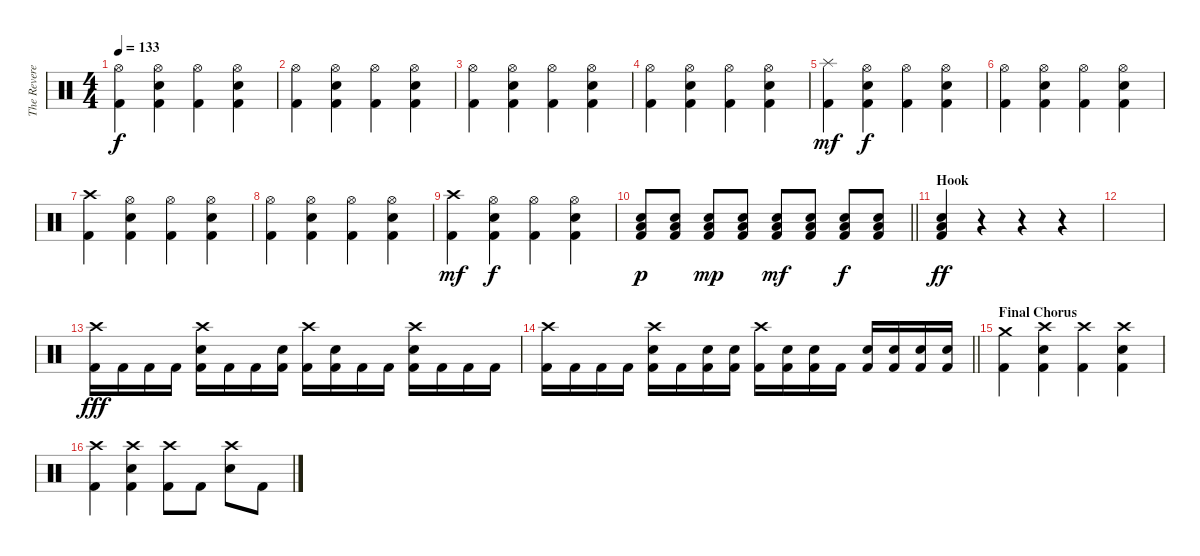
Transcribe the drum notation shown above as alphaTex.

\track ("The Reverend (R.I.P.) [Drums]" "The Revere") {instrument percussion}
\staff {score}
\articulation defaults
\ts (4 4)
\tempo 133
\clef neutral
\ks c
("Hi-Hat (open)" "Kick (hit) 2").4{dy f} ("Hi-Hat (open)" "Electric Snare (hit)" "Kick (hit) 2").4 ("Hi-Hat (open)" "Kick (hit) 2").4 ("Hi-Hat (open)" "Electric Snare (hit)" "Kick (hit) 2").4 |
("Hi-Hat (open)" "Kick (hit) 2").4 ("Hi-Hat (open)" "Electric Snare (hit)" "Kick (hit) 2").4 ("Hi-Hat (open)" "Kick (hit) 2").4 ("Hi-Hat (open)" "Electric Snare (hit)" "Kick (hit) 2").4 |
("Hi-Hat (open)" "Kick (hit) 2").4 ("Hi-Hat (open)" "Electric Snare (hit)" "Kick (hit) 2").4 ("Hi-Hat (open)" "Kick (hit) 2").4 ("Hi-Hat (open)" "Electric Snare (hit)" "Kick (hit) 2").4 |
("Hi-Hat (open)" "Kick (hit) 2").4 ("Hi-Hat (open)" "Electric Snare (hit)" "Kick (hit) 2").4 ("Hi-Hat (open)" "Kick (hit) 2").4 ("Hi-Hat (open)" "Electric Snare (hit)" "Kick (hit) 2").4 |
("Splash (hit)" "Kick (hit) 2").4{dy mf} ("Hi-Hat (open)" "Electric Snare (hit)" "Kick (hit) 2").4{dy f} ("Hi-Hat (open)" "Kick (hit) 2").4 ("Hi-Hat (open)" "Electric Snare (hit)" "Kick (hit) 2").4 |
("Hi-Hat (open)" "Kick (hit) 2").4 ("Hi-Hat (open)" "Electric Snare (hit)" "Kick (hit) 2").4 ("Hi-Hat (open)" "Kick (hit) 2").4 ("Hi-Hat (open)" "Electric Snare (hit)" "Kick (hit) 2").4 |
("Crash high (hit)" "Kick (hit) 2").4 ("Hi-Hat (open)" "Electric Snare (hit)" "Kick (hit) 2").4 ("Hi-Hat (open)" "Kick (hit) 2").4 ("Hi-Hat (open)" "Electric Snare (hit)" "Kick (hit) 2").4 |
("Hi-Hat (open)" "Kick (hit) 2").4 ("Hi-Hat (open)" "Electric Snare (hit)" "Kick (hit) 2").4 ("Hi-Hat (open)" "Kick (hit) 2").4 ("Hi-Hat (open)" "Electric Snare (hit)" "Kick (hit) 2").4 |
("Crash high (hit)" "Kick (hit) 2").4{dy mf} ("Hi-Hat (open)" "Electric Snare (hit)" "Kick (hit) 2").4{dy f} ("Hi-Hat (open)" "Kick (hit) 2").4 ("Hi-Hat (open)" "Electric Snare (hit)" "Kick (hit) 2").4 |
\barLineRight lightlight
("Low Floor Tom (hit)" "Electric Snare (hit)" "Kick (hit) 2").8{dy p} ("Low Floor Tom (hit)" "Electric Snare (hit)" "Kick (hit) 2").8 ("Low Floor Tom (hit)" "Electric Snare (hit)" "Kick (hit) 2").8{dy mp} ("Low Floor Tom (hit)" "Electric Snare (hit)" "Kick (hit) 2").8 ("Low Floor Tom (hit)" "Electric Snare (hit)" "Kick (hit) 2").8{dy mf} ("Low Floor Tom (hit)" "Electric Snare (hit)" "Kick (hit) 2").8 ("Low Floor Tom (hit)" "Electric Snare (hit)" "Kick (hit) 2").8{dy f} ("Low Floor Tom (hit)" "Electric Snare (hit)" "Kick (hit) 2").8 |
\section ("" "Hook")
("Low Floor Tom (hit)" "Electric Snare (hit)" "Kick (hit) 2").4{dy ff} r.4 r.4 r.4 |
|
("Crash high (hit)" "Kick (hit) 2").16{dy fff} "Kick (hit) 2".16 "Kick (hit) 2".16 "Kick (hit) 2".16 ("Crash high (hit)" "Electric Snare (hit)" "Kick (hit) 2").16 "Kick (hit) 2".16 "Kick (hit) 2".16 ("Electric Snare (hit)" "Kick (hit) 2").16 ("Crash high (hit)" "Kick (hit) 2").16 ("Electric Snare (hit)" "Kick (hit) 2").16 "Kick (hit) 2".16 "Kick (hit) 2".16 ("Crash high (hit)" "Electric Snare (hit)" "Kick (hit) 2").16 "Kick (hit) 2".16 "Kick (hit) 2".16 "Kick (hit) 2".16 |
\barLineRight lightlight
("Crash high (hit)" "Kick (hit) 2").16 "Kick (hit) 2".16 "Kick (hit) 2".16 "Kick (hit) 2".16 ("Crash high (hit)" "Electric Snare (hit)" "Kick (hit) 2").16 "Kick (hit) 2".16 ("Electric Snare (hit)" "Kick (hit) 2").16 ("Electric Snare (hit)" "Kick (hit) 2").16 ("Crash high (hit)" "Kick (hit) 2").16 ("Electric Snare (hit)" "Kick (hit) 2").16 ("Electric Snare (hit)" "Kick (hit) 2").16 "Kick (hit) 2".16 ("Electric Snare (hit)" "Kick (hit) 2").16 ("Electric Snare (hit)" "Kick (hit) 2").16 ("Electric Snare (hit)" "Kick (hit) 2").16 ("Electric Snare (hit)" "Kick (hit) 2").16 |
\section ("" "Final Chorus")
("Crash medium (hit)" "Kick (hit) 2").4 ("Crash high (hit)" "Electric Snare (hit)" "Kick (hit) 2").4 ("Crash high (hit)" "Kick (hit) 2").4 ("Crash high (hit)" "Electric Snare (hit)" "Kick (hit) 2").4 |
("Crash high (hit)" "Kick (hit) 2").4 ("Crash high (hit)" "Electric Snare (hit)" "Kick (hit) 2").4 ("Crash high (hit)" "Kick (hit) 2").8 "Kick (hit) 2".8 ("Crash high (hit)" "Electric Snare (hit)").8 "Kick (hit) 2".8
